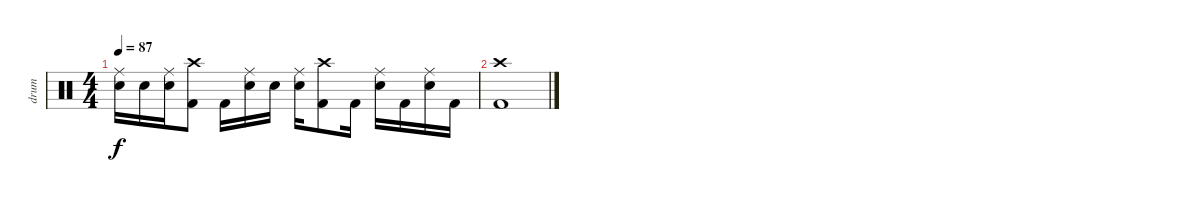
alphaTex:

\track ("drum" "drum") {instrument percussion}
\staff {score}
\articulation defaults
\ts (4 4)
\tempo 87
\clef neutral
\ks c
("Ride (middle)" "Electric Snare (hit)").16{dy f} "Electric Snare (hit)".16 ("Ride (middle)" "Electric Snare (hit)").16 ("Crash high (hit)" "Kick (hit) 2").8 "Kick (hit) 2".16 ("Ride (middle)" "Electric Snare (hit)").16 "Electric Snare (hit)".16 ("Ride (middle)" "Electric Snare (hit)").16 ("Crash high (hit)" "Kick (hit) 2").8 "Kick (hit) 2".16 ("Ride (middle)" "Electric Snare (hit)").16 "Kick (hit) 2".16 ("Ride (middle)" "Electric Snare (hit)").16 "Kick (hit) 2".16 |
("Crash high (hit)" "Kick (hit) 2").1
